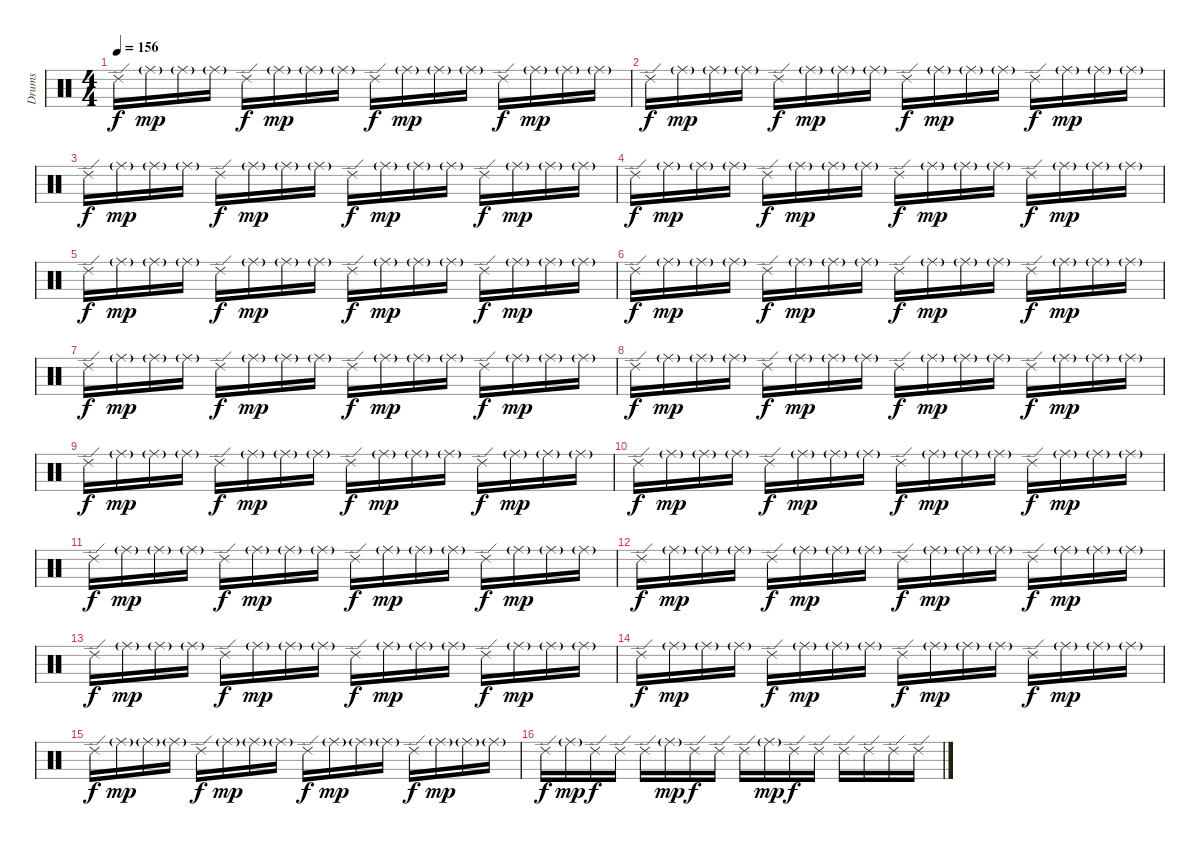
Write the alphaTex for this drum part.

\track ("Drums" "Drums") {instrument percussion}
\staff {score}
\articulation defaults
\ts (4 4)
\tempo 156
\clef neutral
\ks c "Ride (edge) 2".16{dy f} "Ride (middle)"{g}.16{dy mp} "Ride (middle)"{g}.16 "Ride (middle)"{g}.16 "Ride (edge) 2".16{dy f} "Ride (middle)"{g}.16{dy mp} "Ride (middle)"{g}.16 "Ride (middle)"{g}.16 "Ride (edge) 2".16{dy f} "Ride (middle)"{g}.16{dy mp} "Ride (middle)"{g}.16 "Ride (middle)"{g}.16 "Ride (edge) 2".16{dy f} "Ride (middle)"{g}.16{dy mp} "Ride (middle)"{g}.16 "Ride (middle)"{g}.16
|
"Ride (edge) 2".16{dy f} "Ride (middle)"{g}.16{dy mp} "Ride (middle)"{g}.16 "Ride (middle)"{g}.16 "Ride (edge) 2".16{dy f} "Ride (middle)"{g}.16{dy mp} "Ride (middle)"{g}.16 "Ride (middle)"{g}.16 "Ride (edge) 2".16{dy f} "Ride (middle)"{g}.16{dy mp} "Ride (middle)"{g}.16 "Ride (middle)"{g}.16 "Ride (edge) 2".16{dy f} "Ride (middle)"{g}.16{dy mp} "Ride (middle)"{g}.16 "Ride (middle)"{g}.16 |
"Ride (edge) 2".16{dy f} "Ride (middle)"{g}.16{dy mp} "Ride (middle)"{g}.16 "Ride (middle)"{g}.16 "Ride (edge) 2".16{dy f} "Ride (middle)"{g}.16{dy mp} "Ride (middle)"{g}.16 "Ride (middle)"{g}.16 "Ride (edge) 2".16{dy f} "Ride (middle)"{g}.16{dy mp} "Ride (middle)"{g}.16 "Ride (middle)"{g}.16 "Ride (edge) 2".16{dy f} "Ride (middle)"{g}.16{dy mp} "Ride (middle)"{g}.16 "Ride (middle)"{g}.16 |
"Ride (edge) 2".16{dy f} "Ride (middle)"{g}.16{dy mp} "Ride (middle)"{g}.16 "Ride (middle)"{g}.16 "Ride (edge) 2".16{dy f} "Ride (middle)"{g}.16{dy mp} "Ride (middle)"{g}.16 "Ride (middle)"{g}.16 "Ride (edge) 2".16{dy f} "Ride (middle)"{g}.16{dy mp} "Ride (middle)"{g}.16 "Ride (middle)"{g}.16 "Ride (edge) 2".16{dy f} "Ride (middle)"{g}.16{dy mp} "Ride (middle)"{g}.16 "Ride (middle)"{g}.16 |
"Ride (edge) 2".16{dy f} "Ride (middle)"{g}.16{dy mp} "Ride (middle)"{g}.16 "Ride (middle)"{g}.16 "Ride (edge) 2".16{dy f} "Ride (middle)"{g}.16{dy mp} "Ride (middle)"{g}.16 "Ride (middle)"{g}.16 "Ride (edge) 2".16{dy f} "Ride (middle)"{g}.16{dy mp} "Ride (middle)"{g}.16 "Ride (middle)"{g}.16 "Ride (edge) 2".16{dy f} "Ride (middle)"{g}.16{dy mp} "Ride (middle)"{g}.16 "Ride (middle)"{g}.16 |
"Ride (edge) 2".16{dy f} "Ride (middle)"{g}.16{dy mp} "Ride (middle)"{g}.16 "Ride (middle)"{g}.16 "Ride (edge) 2".16{dy f} "Ride (middle)"{g}.16{dy mp} "Ride (middle)"{g}.16 "Ride (middle)"{g}.16 "Ride (edge) 2".16{dy f} "Ride (middle)"{g}.16{dy mp} "Ride (middle)"{g}.16 "Ride (middle)"{g}.16 "Ride (edge) 2".16{dy f} "Ride (middle)"{g}.16{dy mp} "Ride (middle)"{g}.16 "Ride (middle)"{g}.16 |
"Ride (edge) 2".16{dy f} "Ride (middle)"{g}.16{dy mp} "Ride (middle)"{g}.16 "Ride (middle)"{g}.16 "Ride (edge) 2".16{dy f} "Ride (middle)"{g}.16{dy mp} "Ride (middle)"{g}.16 "Ride (middle)"{g}.16 "Ride (edge) 2".16{dy f} "Ride (middle)"{g}.16{dy mp} "Ride (middle)"{g}.16 "Ride (middle)"{g}.16 "Ride (edge) 2".16{dy f} "Ride (middle)"{g}.16{dy mp} "Ride (middle)"{g}.16 "Ride (middle)"{g}.16 |
"Ride (edge) 2".16{dy f} "Ride (middle)"{g}.16{dy mp} "Ride (middle)"{g}.16 "Ride (middle)"{g}.16 "Ride (edge) 2".16{dy f} "Ride (middle)"{g}.16{dy mp} "Ride (middle)"{g}.16 "Ride (middle)"{g}.16 "Ride (edge) 2".16{dy f} "Ride (middle)"{g}.16{dy mp} "Ride (middle)"{g}.16 "Ride (middle)"{g}.16 "Ride (edge) 2".16{dy f} "Ride (middle)"{g}.16{dy mp} "Ride (middle)"{g}.16 "Ride (middle)"{g}.16 |
"Ride (edge) 2".16{dy f} "Ride (middle)"{g}.16{dy mp} "Ride (middle)"{g}.16 "Ride (middle)"{g}.16 "Ride (edge) 2".16{dy f} "Ride (middle)"{g}.16{dy mp} "Ride (middle)"{g}.16 "Ride (middle)"{g}.16 "Ride (edge) 2".16{dy f} "Ride (middle)"{g}.16{dy mp} "Ride (middle)"{g}.16 "Ride (middle)"{g}.16 "Ride (edge) 2".16{dy f} "Ride (middle)"{g}.16{dy mp} "Ride (middle)"{g}.16 "Ride (middle)"{g}.16 |
"Ride (edge) 2".16{dy f} "Ride (middle)"{g}.16{dy mp} "Ride (middle)"{g}.16 "Ride (middle)"{g}.16 "Ride (edge) 2".16{dy f} "Ride (middle)"{g}.16{dy mp} "Ride (middle)"{g}.16 "Ride (middle)"{g}.16 "Ride (edge) 2".16{dy f} "Ride (middle)"{g}.16{dy mp} "Ride (middle)"{g}.16 "Ride (middle)"{g}.16 "Ride (edge) 2".16{dy f} "Ride (middle)"{g}.16{dy mp} "Ride (middle)"{g}.16 "Ride (middle)"{g}.16 |
"Ride (edge) 2".16{dy f} "Ride (middle)"{g}.16{dy mp} "Ride (middle)"{g}.16 "Ride (middle)"{g}.16 "Ride (edge) 2".16{dy f} "Ride (middle)"{g}.16{dy mp} "Ride (middle)"{g}.16 "Ride (middle)"{g}.16 "Ride (edge) 2".16{dy f} "Ride (middle)"{g}.16{dy mp} "Ride (middle)"{g}.16 "Ride (middle)"{g}.16 "Ride (edge) 2".16{dy f} "Ride (middle)"{g}.16{dy mp} "Ride (middle)"{g}.16 "Ride (middle)"{g}.16 |
"Ride (edge) 2".16{dy f} "Ride (middle)"{g}.16{dy mp} "Ride (middle)"{g}.16 "Ride (middle)"{g}.16 "Ride (edge) 2".16{dy f} "Ride (middle)"{g}.16{dy mp} "Ride (middle)"{g}.16 "Ride (middle)"{g}.16 "Ride (edge) 2".16{dy f} "Ride (middle)"{g}.16{dy mp} "Ride (middle)"{g}.16 "Ride (middle)"{g}.16 "Ride (edge) 2".16{dy f} "Ride (middle)"{g}.16{dy mp} "Ride (middle)"{g}.16 "Ride (middle)"{g}.16 |
"Ride (edge) 2".16{dy f} "Ride (middle)"{g}.16{dy mp} "Ride (middle)"{g}.16 "Ride (middle)"{g}.16 "Ride (edge) 2".16{dy f} "Ride (middle)"{g}.16{dy mp} "Ride (middle)"{g}.16 "Ride (middle)"{g}.16 "Ride (edge) 2".16{dy f} "Ride (middle)"{g}.16{dy mp} "Ride (middle)"{g}.16 "Ride (middle)"{g}.16 "Ride (edge) 2".16{dy f} "Ride (middle)"{g}.16{dy mp} "Ride (middle)"{g}.16 "Ride (middle)"{g}.16 |
"Ride (edge) 2".16{dy f} "Ride (middle)"{g}.16{dy mp} "Ride (middle)"{g}.16 "Ride (middle)"{g}.16 "Ride (edge) 2".16{dy f} "Ride (middle)"{g}.16{dy mp} "Ride (middle)"{g}.16 "Ride (middle)"{g}.16 "Ride (edge) 2".16{dy f} "Ride (middle)"{g}.16{dy mp} "Ride (middle)"{g}.16 "Ride (middle)"{g}.16 "Ride (edge) 2".16{dy f} "Ride (middle)"{g}.16{dy mp} "Ride (middle)"{g}.16 "Ride (middle)"{g}.16 |
"Ride (edge) 2".16{dy f} "Ride (middle)"{g}.16{dy mp} "Ride (middle)"{g}.16 "Ride (middle)"{g}.16 "Ride (edge) 2".16{dy f} "Ride (middle)"{g}.16{dy mp} "Ride (middle)"{g}.16 "Ride (middle)"{g}.16 "Ride (edge) 2".16{dy f} "Ride (middle)"{g}.16{dy mp} "Ride (middle)"{g}.16 "Ride (middle)"{g}.16 "Ride (edge) 2".16{dy f} "Ride (middle)"{g}.16{dy mp} "Ride (middle)"{g}.16 "Ride (middle)"{g}.16 |
"Ride (edge) 2".16{dy f} "Ride (middle)"{g}.16{dy mp} "Ride (edge) 2".16{dy f} "Ride (edge) 2".16 "Ride (edge) 2".16 "Ride (middle)"{g}.16{dy mp} "Ride (edge) 2".16{dy f} "Ride (edge) 2".16 "Ride (edge) 2".16 "Ride (middle)"{g}.16{dy mp} "Ride (edge) 2".16{dy f} "Ride (edge) 2".16 "Ride (edge) 2".16 "Ride (edge) 2".16 "Ride (edge) 2".16 "Ride (edge) 2".16
